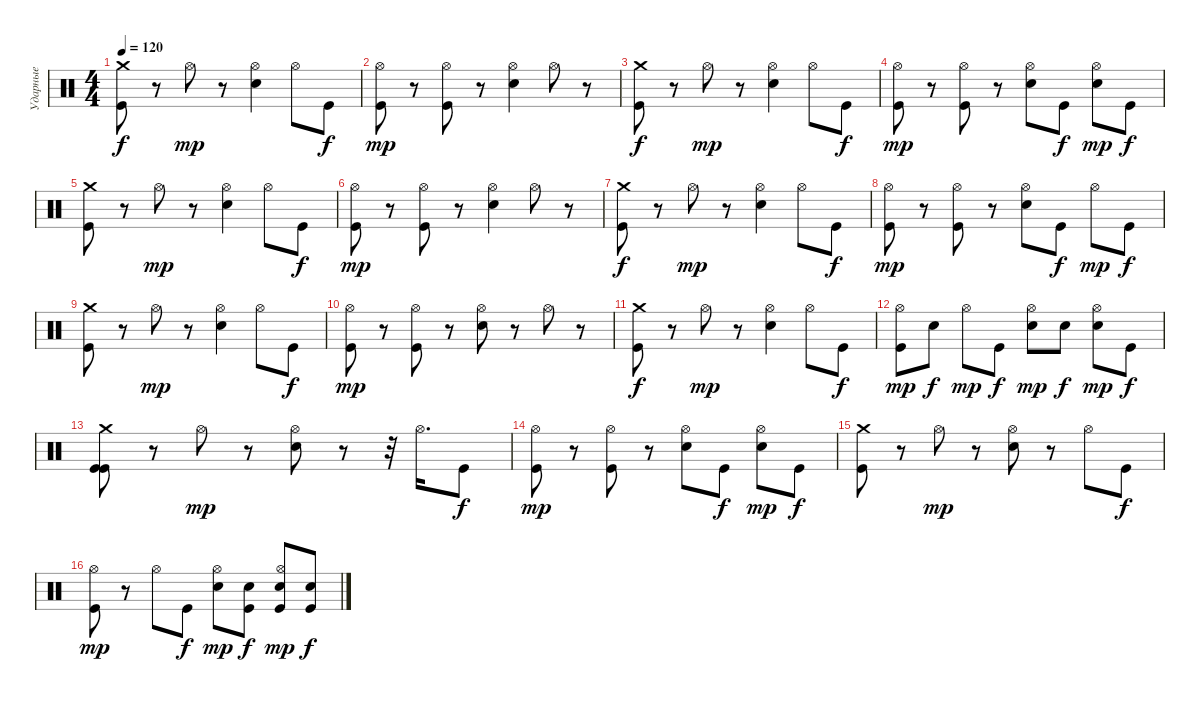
\track ("Ударные" "Ударные") {instrument percussion}
\staff {score}
\articulation defaults
\ts (4 4)
\tempo 120
\clef neutral
\ks c
("Kick (hit)" "Crash medium (hit)").8{dy f} r.8 "Hi-Hat (open)".8{dy mp} r.8 ("Snare (hit) 2" "Hi-Hat (open)").4 "Hi-Hat (open)".8 "Kick (hit)".8{dy f} |
("Kick (hit)" "Hi-Hat (open)").8{dy mp} r.8 ("Kick (hit)" "Hi-Hat (open)").8 r.8 ("Snare (hit) 2" "Hi-Hat (open)").4 "Hi-Hat (open)".8 r.8 |
("Kick (hit)" "Crash medium (hit)").8{dy f} r.8 "Hi-Hat (open)".8{dy mp} r.8 ("Snare (hit) 2" "Hi-Hat (open)").4 "Hi-Hat (open)".8 "Kick (hit)".8{dy f} |
("Kick (hit)" "Hi-Hat (open)").8{dy mp} r.8 ("Kick (hit)" "Hi-Hat (open)").8 r.8 ("Snare (hit) 2" "Hi-Hat (open)").8 "Kick (hit)".8{dy f} ("Snare (hit) 2" "Hi-Hat (open)").8{dy mp} "Kick (hit)".8{dy f} |
("Kick (hit)" "Crash medium (hit)").8 r.8 "Hi-Hat (open)".8{dy mp} r.8 ("Snare (hit) 2" "Hi-Hat (open)").4 "Hi-Hat (open)".8 "Kick (hit)".8{dy f} |
("Kick (hit)" "Hi-Hat (open)").8{dy mp} r.8 ("Kick (hit)" "Hi-Hat (open)").8 r.8 ("Snare (hit) 2" "Hi-Hat (open)").4 "Hi-Hat (open)".8 r.8 |
("Kick (hit)" "Crash medium (hit)").8{dy f} r.8 "Hi-Hat (open)".8{dy mp} r.8 ("Snare (hit) 2" "Hi-Hat (open)").4 "Hi-Hat (open)".8 "Kick (hit)".8{dy f} |
("Kick (hit)" "Hi-Hat (open)").8{dy mp} r.8 ("Kick (hit)" "Hi-Hat (open)").8 r.8 ("Snare (hit) 2" "Hi-Hat (open)").8 "Kick (hit)".8{dy f} "Hi-Hat (open)".8{dy mp} "Kick (hit)".8{dy f} |
("Kick (hit)" "Crash medium (hit)").8 r.8 "Hi-Hat (open)".8{dy mp} r.8 ("Snare (hit) 2" "Hi-Hat (open)").4 "Hi-Hat (open)".8 "Kick (hit)".8{dy f} |
("Kick (hit)" "Hi-Hat (open)").8{dy mp} r.8 ("Kick (hit)" "Hi-Hat (open)").8 r.8 ("Snare (hit) 2" "Hi-Hat (open)").8 r.8 "Hi-Hat (open)".8 r.8 |
("Kick (hit)" "Crash medium (hit)").8{dy f} r.8 "Hi-Hat (open)".8{dy mp} r.8 ("Snare (hit) 2" "Hi-Hat (open)").4 "Hi-Hat (open)".8 "Kick (hit)".8{dy f} |
("Kick (hit)" "Hi-Hat (open)").8{dy mp} "Snare (hit) 2".8{dy f} "Hi-Hat (open)".8{dy mp} "Kick (hit)".8{dy f} ("Snare (hit) 2" "Hi-Hat (open)").8{dy mp} "Snare (hit) 2".8{dy f} ("Snare (hit) 2" "Hi-Hat (open)").8{dy mp} "Kick (hit)".8{dy f} |
("Crash medium (hit)" "Kick (hit)" "Kick (hit)").8 r.8 "Hi-Hat (open)".8{dy mp} r.8 ("Snare (hit) 2" "Hi-Hat (open)").8 r.8 r.32 "Hi-Hat (open)".16{d} "Kick (hit)".8{dy f} |
("Kick (hit)" "Hi-Hat (open)").8{dy mp} r.8 ("Kick (hit)" "Hi-Hat (open)").8 r.8 ("Snare (hit) 2" "Hi-Hat (open)").8 "Kick (hit)".8{dy f} ("Snare (hit) 2" "Hi-Hat (open)").8{dy mp} "Kick (hit)".8{dy f} |
("Crash medium (hit)" "Kick (hit)").8 r.8 "Hi-Hat (open)".8{dy mp} r.8 ("Snare (hit) 2" "Hi-Hat (open)").8 r.8 "Hi-Hat (open)".8 "Kick (hit)".8{dy f} |
("Kick (hit)" "Hi-Hat (open)").8{dy mp} r.8 "Hi-Hat (open)".8 "Kick (hit)".8{dy f} ("Snare (hit) 2" "Hi-Hat (open)").8{dy mp} ("Kick (hit)" "Snare (hit) 2").8{dy f} ("Snare (hit) 2" "Kick (hit)" "Hi-Hat (open)").8{dy mp} ("Kick (hit)" "Snare (hit) 2").8{dy f}
